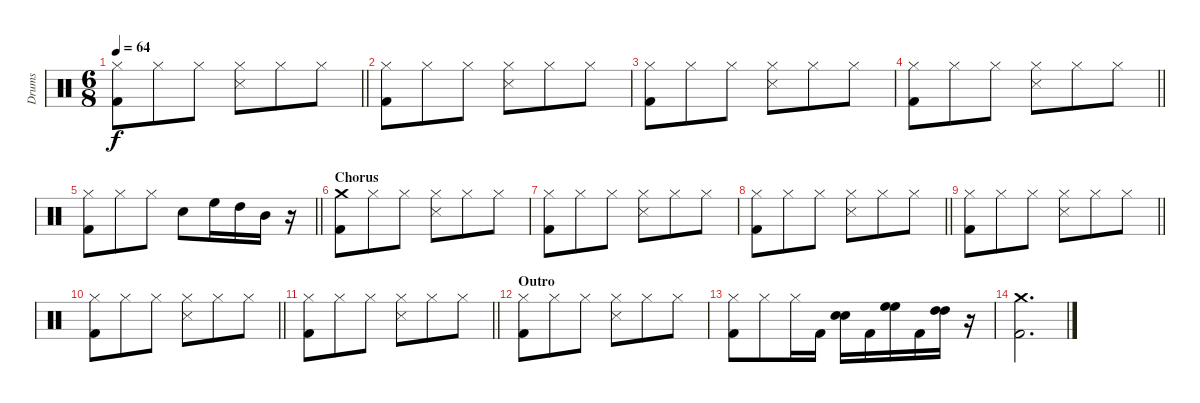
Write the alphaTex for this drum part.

\track ("Drums" "Drums") {instrument percussion}
\staff {score}
\articulation defaults
\ts (6 8)
\tempo 64
\clef neutral
\barLineRight lightlight
\ks c
("Hi-Hat (closed)" "Kick (hit) 2").8{dy f} "Hi-Hat (closed)".8 "Hi-Hat (closed)".8 ("Hi-Hat (closed)" "Snare (side stick) 3").8 "Hi-Hat (closed)".8 "Hi-Hat (closed)".8 |
("Hi-Hat (closed)" "Kick (hit) 2").8 "Hi-Hat (closed)".8 "Hi-Hat (closed)".8 ("Hi-Hat (closed)" "Snare (side stick) 3").8 "Hi-Hat (closed)".8 "Hi-Hat (closed)".8 |
("Hi-Hat (closed)" "Kick (hit) 2").8 "Hi-Hat (closed)".8 "Hi-Hat (closed)".8 ("Hi-Hat (closed)" "Snare (side stick) 3").8 "Hi-Hat (closed)".8 "Hi-Hat (closed)".8 |
\barLineRight lightlight
("Hi-Hat (closed)" "Kick (hit) 2").8 "Hi-Hat (closed)".8 "Hi-Hat (closed)".8 ("Hi-Hat (closed)" "Snare (side stick) 3").8 "Hi-Hat (closed)".8 "Hi-Hat (closed)".8 |
\barLineRight lightlight
("Hi-Hat (closed)" "Kick (hit) 2").8 "Hi-Hat (closed)".8 "Hi-Hat (closed)".8 "Electric Snare (hit)".8 "High Floor Tom (hit)".16 "High Tom (hit)".16 "Mid Tom (hit)".16 r.16 |
\section ("" "Chorus")
("Crash medium (hit)" "Kick (hit) 2").8 "Hi-Hat (closed)".8 "Hi-Hat (closed)".8 ("Hi-Hat (closed)" "Snare (side stick) 3").8 "Hi-Hat (closed)".8 "Hi-Hat (closed)".8 |
("Hi-Hat (closed)" "Kick (hit) 2").8 "Hi-Hat (closed)".8 "Hi-Hat (closed)".8 ("Hi-Hat (closed)" "Snare (side stick) 3").8 "Hi-Hat (closed)".8 "Hi-Hat (closed)".8 |
\barLineRight lightlight
("Hi-Hat (closed)" "Kick (hit) 2").8 "Hi-Hat (closed)".8 "Hi-Hat (closed)".8 ("Hi-Hat (closed)" "Snare (side stick) 3").8 "Hi-Hat (closed)".8 "Hi-Hat (closed)".8 |
\barLineRight lightlight
("Hi-Hat (closed)" "Kick (hit) 2").8 "Hi-Hat (closed)".8 "Hi-Hat (closed)".8 ("Hi-Hat (closed)" "Snare (side stick) 3").8 "Hi-Hat (closed)".8 "Hi-Hat (closed)".8 |
\barLineRight lightlight
("Hi-Hat (closed)" "Kick (hit) 2").8 "Hi-Hat (closed)".8 "Hi-Hat (closed)".8 ("Hi-Hat (closed)" "Snare (side stick) 3").8 "Hi-Hat (closed)".8 "Hi-Hat (closed)".8 |
\barLineRight lightlight
("Hi-Hat (closed)" "Kick (hit) 2").8 "Hi-Hat (closed)".8 "Hi-Hat (closed)".8 ("Hi-Hat (closed)" "Snare (side stick) 3").8 "Hi-Hat (closed)".8 "Hi-Hat (closed)".8 |
\section ("" "Outro")
("Hi-Hat (closed)" "Kick (hit) 2").8 "Hi-Hat (closed)".8 "Hi-Hat (closed)".8 ("Hi-Hat (closed)" "Snare (side stick) 3").8 "Hi-Hat (closed)".8 "Hi-Hat (closed)".8 |
("Hi-Hat (closed)" "Kick (hit) 2").8 "Hi-Hat (closed)".8 "Hi-Hat (closed)".16 "Kick (hit) 2".16 ("Electric Snare (hit)" "Electric Snare (hit)").16 "Kick (hit) 2".16 ("High Floor Tom (hit)" "High Floor Tom (hit)").16 "Kick (hit) 2".16 ("High Tom (hit)" "High Tom (hit)").16 r.16 |
("Crash medium (hit)" "Kick (hit) 2").2{d}
